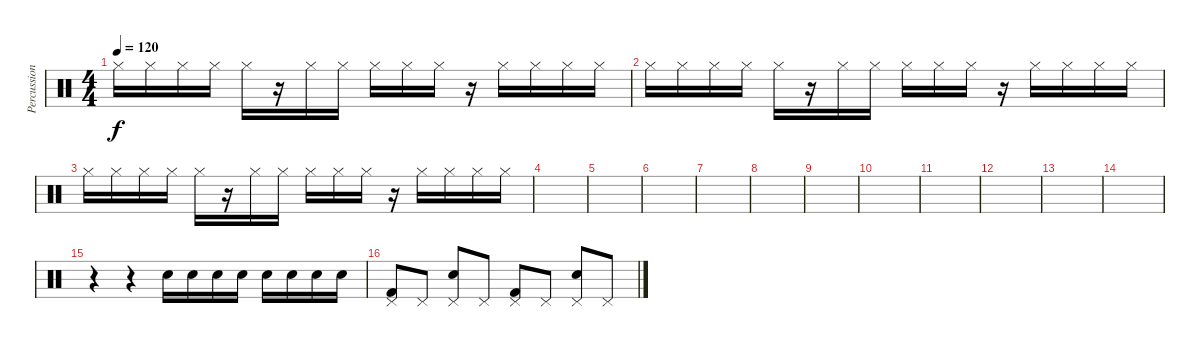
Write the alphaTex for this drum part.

\track ("Percussions" "Percussion") {instrument percussion}
\staff {score}
\articulation defaults
\ts (4 4)
\tempo 120
\clef neutral
\ks c "Hi-Hat (closed)".16{dy f} "Hi-Hat (closed)".16 "Hi-Hat (closed)".16 "Hi-Hat (closed)".16 "Hi-Hat (closed)".16
r.16 "Hi-Hat (closed)".16 "Hi-Hat (closed)".16 "Hi-Hat (closed)".16 "Hi-Hat (closed)".16 "Hi-Hat (closed)".16 r.16 "Hi-Hat (closed)".16 "Hi-Hat (closed)".16 "Hi-Hat (closed)".16 "Hi-Hat (closed)".16 |
"Hi-Hat (closed)".16 "Hi-Hat (closed)".16 "Hi-Hat (closed)".16 "Hi-Hat (closed)".16 "Hi-Hat (closed)".16 r.16 "Hi-Hat (closed)".16 "Hi-Hat (closed)".16 "Hi-Hat (closed)".16 "Hi-Hat (closed)".16 "Hi-Hat (closed)".16 r.16 "Hi-Hat (closed)".16 "Hi-Hat (closed)".16 "Hi-Hat (closed)".16 "Hi-Hat (closed)".16 |
"Hi-Hat (closed)".16 "Hi-Hat (closed)".16 "Hi-Hat (closed)".16 "Hi-Hat (closed)".16 "Hi-Hat (closed)".16 r.16 "Hi-Hat (closed)".16 "Hi-Hat (closed)".16 "Hi-Hat (closed)".16 "Hi-Hat (closed)".16 "Hi-Hat (closed)".16 r.16 "Hi-Hat (closed)".16 "Hi-Hat (closed)".16 "Hi-Hat (closed)".16 "Hi-Hat (closed)".16 |
|
|
|
|
|
|
|
|
|
|
|
r.4 r.4 "Snare (hit) 2".16 "Snare (hit) 2".16 "Snare (hit) 2".16 "Snare (hit) 2".16 "Snare (hit) 2".16 "Snare (hit) 2".16 "Snare (hit) 2".16 "Snare (hit) 2".16 |
("Pedal Hi-Hat (hit)" "Kick (hit) 2").8 "Pedal Hi-Hat (hit)".8 ("Pedal Hi-Hat (hit)" "Snare (hit) 2").8 "Pedal Hi-Hat (hit)".8 ("Pedal Hi-Hat (hit)" "Kick (hit) 2").8 "Pedal Hi-Hat (hit)".8 ("Pedal Hi-Hat (hit)" "Snare (hit) 2").8 "Pedal Hi-Hat (hit)".8
